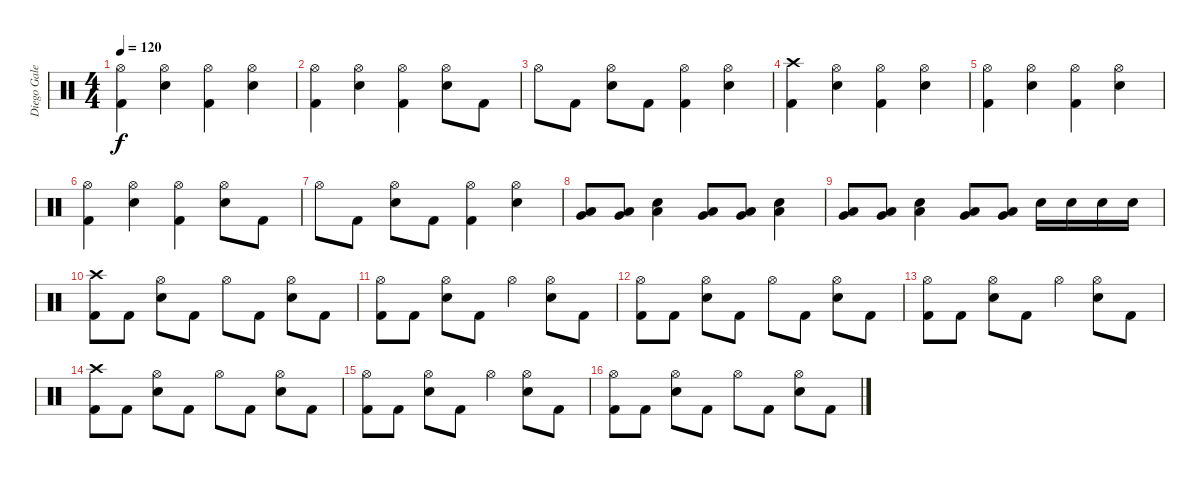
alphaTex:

\track ("Diego Galeri (batteria)" "Diego Gale") {instrument percussion}
\staff {score}
\articulation defaults
\ts (4 4)
\tempo 120
\clef neutral
\ks c
("Hi-Hat (open)" "Kick (hit) 2").4{dy f} ("Hi-Hat (open)" "Electric Snare (hit)").4 ("Hi-Hat (open)" "Kick (hit) 2").4 ("Hi-Hat (open)" "Electric Snare (hit)").4 |
("Hi-Hat (open)" "Kick (hit) 2").4 ("Hi-Hat (open)" "Electric Snare (hit)").4 ("Hi-Hat (open)" "Kick (hit) 2").4 ("Hi-Hat (open)" "Electric Snare (hit)").8 "Kick (hit) 2".8 |
"Hi-Hat (open)".8 "Kick (hit) 2".8 ("Hi-Hat (open)" "Electric Snare (hit)").8 "Kick (hit) 2".8 ("Hi-Hat (open)" "Kick (hit) 2").4 ("Hi-Hat (open)" "Electric Snare (hit)").4 |
("Kick (hit) 2" "Crash high (hit)").4 ("Hi-Hat (open)" "Electric Snare (hit)").4 ("Hi-Hat (open)" "Kick (hit) 2").4 ("Hi-Hat (open)" "Electric Snare (hit)").4 |
("Hi-Hat (open)" "Kick (hit) 2").4 ("Hi-Hat (open)" "Electric Snare (hit)").4 ("Hi-Hat (open)" "Kick (hit) 2").4 ("Hi-Hat (open)" "Electric Snare (hit)").4 |
("Hi-Hat (open)" "Kick (hit) 2").4 ("Hi-Hat (open)" "Electric Snare (hit)").4 ("Hi-Hat (open)" "Kick (hit) 2").4 ("Hi-Hat (open)" "Electric Snare (hit)").8 "Kick (hit) 2".8 |
"Hi-Hat (open)".8 "Kick (hit) 2".8 ("Hi-Hat (open)" "Electric Snare (hit)").8 "Kick (hit) 2".8 ("Hi-Hat (open)" "Kick (hit) 2").4 ("Hi-Hat (open)" "Electric Snare (hit)").4 |
("Low Tom (hit)" "Very Low Tom (hit)").8 ("Low Tom (hit)" "Very Low Tom (hit)").8 ("Low Tom (hit)" "Electric Snare (hit)").4 ("Low Tom (hit)" "Very Low Tom (hit)").8 ("Low Tom (hit)" "Very Low Tom (hit)").8 ("Low Tom (hit)" "Electric Snare (hit)").4 |
("Low Tom (hit)" "Very Low Tom (hit)").8 ("Low Tom (hit)" "Very Low Tom (hit)").8 ("Low Tom (hit)" "Electric Snare (hit)").4 ("Low Tom (hit)" "Very Low Tom (hit)").8 ("Low Tom (hit)" "Very Low Tom (hit)").8 "Electric Snare (hit)".16 "Electric Snare (hit)".16 "Electric Snare (hit)".16 "Electric Snare (hit)".16 |
("Kick (hit) 2" "Crash high (hit)").8 "Kick (hit) 2".8 ("Hi-Hat (open)" "Electric Snare (hit)").8 "Kick (hit) 2".8 "Hi-Hat (open)".8 "Kick (hit) 2".8 ("Hi-Hat (open)" "Electric Snare (hit)").8 "Kick (hit) 2".8 |
("Hi-Hat (open)" "Kick (hit) 2").8 "Kick (hit) 2".8 ("Hi-Hat (open)" "Electric Snare (hit)").8 "Kick (hit) 2".8 "Hi-Hat (open)".4 ("Hi-Hat (open)" "Electric Snare (hit)").8 "Kick (hit) 2".8 |
("Hi-Hat (open)" "Kick (hit) 2").8 "Kick (hit) 2".8 ("Hi-Hat (open)" "Electric Snare (hit)").8 "Kick (hit) 2".8 "Hi-Hat (open)".8 "Kick (hit) 2".8 ("Hi-Hat (open)" "Electric Snare (hit)").8 "Kick (hit) 2".8 |
("Hi-Hat (open)" "Kick (hit) 2").8 "Kick (hit) 2".8 ("Hi-Hat (open)" "Electric Snare (hit)").8 "Kick (hit) 2".8 "Hi-Hat (open)".4 ("Hi-Hat (open)" "Electric Snare (hit)").8 "Kick (hit) 2".8 |
("Kick (hit) 2" "Crash high (hit)").8 "Kick (hit) 2".8 ("Hi-Hat (open)" "Electric Snare (hit)").8 "Kick (hit) 2".8 "Hi-Hat (open)".8 "Kick (hit) 2".8 ("Hi-Hat (open)" "Electric Snare (hit)").8 "Kick (hit) 2".8 |
("Hi-Hat (open)" "Kick (hit) 2").8 "Kick (hit) 2".8 ("Hi-Hat (open)" "Electric Snare (hit)").8 "Kick (hit) 2".8 "Hi-Hat (open)".4 ("Hi-Hat (open)" "Electric Snare (hit)").8 "Kick (hit) 2".8 |
("Hi-Hat (open)" "Kick (hit) 2").8 "Kick (hit) 2".8 ("Hi-Hat (open)" "Electric Snare (hit)").8 "Kick (hit) 2".8 "Hi-Hat (open)".8 "Kick (hit) 2".8 ("Hi-Hat (open)" "Electric Snare (hit)").8 "Kick (hit) 2".8
